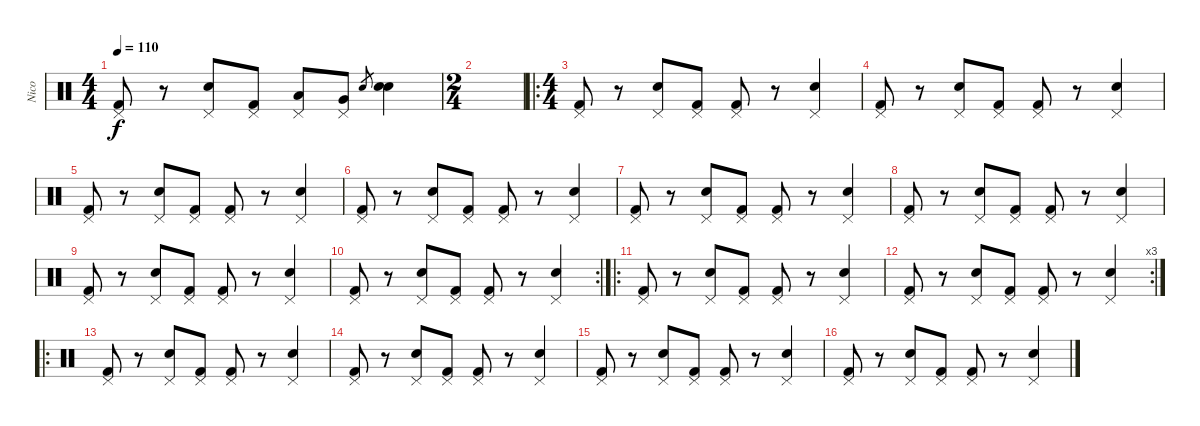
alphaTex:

\track ("Nico" "Nico") {instrument percussion}
\staff {score}
\articulation defaults
\ts (4 4)
\tempo 110
\clef neutral
\ks c
("Pedal Hi-Hat (hit)" "Kick (hit) 2").8{dy f} r.8 ("Pedal Hi-Hat (hit)" "Snare (hit) 2").8 ("Pedal Hi-Hat (hit)" "Kick (hit) 2").8 ("Pedal Hi-Hat (hit)" "Low Floor Tom (hit)").8 ("Pedal Hi-Hat (hit)" "Very Low Tom (hit)").8 "Snare (hit) 2".8{gr} ("Electric Snare (hit)" "Snare (hit) 2").4 |
\ts (2 4)
|
\ro
\ts (4 4)
("Pedal Hi-Hat (hit)" "Kick (hit) 2").8 r.8 ("Pedal Hi-Hat (hit)" "Snare (hit) 2").8 ("Pedal Hi-Hat (hit)" "Kick (hit) 2").8 ("Pedal Hi-Hat (hit)" "Kick (hit) 2").8 r.8 ("Pedal Hi-Hat (hit)" "Snare (hit) 2").4 |
("Pedal Hi-Hat (hit)" "Kick (hit) 2").8 r.8 ("Pedal Hi-Hat (hit)" "Snare (hit) 2").8 ("Pedal Hi-Hat (hit)" "Kick (hit) 2").8 ("Pedal Hi-Hat (hit)" "Kick (hit) 2").8 r.8 ("Pedal Hi-Hat (hit)" "Snare (hit) 2").4 |
("Pedal Hi-Hat (hit)" "Kick (hit) 2").8 r.8 ("Pedal Hi-Hat (hit)" "Snare (hit) 2").8 ("Pedal Hi-Hat (hit)" "Kick (hit) 2").8 ("Pedal Hi-Hat (hit)" "Kick (hit) 2").8 r.8 ("Pedal Hi-Hat (hit)" "Snare (hit) 2").4 |
("Pedal Hi-Hat (hit)" "Kick (hit) 2").8 r.8 ("Pedal Hi-Hat (hit)" "Snare (hit) 2").8 ("Pedal Hi-Hat (hit)" "Kick (hit) 2").8 ("Pedal Hi-Hat (hit)" "Kick (hit) 2").8 r.8 ("Pedal Hi-Hat (hit)" "Snare (hit) 2").4 |
("Pedal Hi-Hat (hit)" "Kick (hit) 2").8 r.8 ("Pedal Hi-Hat (hit)" "Snare (hit) 2").8 ("Pedal Hi-Hat (hit)" "Kick (hit) 2").8 ("Pedal Hi-Hat (hit)" "Kick (hit) 2").8 r.8 ("Pedal Hi-Hat (hit)" "Snare (hit) 2").4 |
("Pedal Hi-Hat (hit)" "Kick (hit) 2").8 r.8 ("Pedal Hi-Hat (hit)" "Snare (hit) 2").8 ("Pedal Hi-Hat (hit)" "Kick (hit) 2").8 ("Pedal Hi-Hat (hit)" "Kick (hit) 2").8 r.8 ("Pedal Hi-Hat (hit)" "Snare (hit) 2").4 |
("Pedal Hi-Hat (hit)" "Kick (hit) 2").8 r.8 ("Pedal Hi-Hat (hit)" "Snare (hit) 2").8 ("Pedal Hi-Hat (hit)" "Kick (hit) 2").8 ("Pedal Hi-Hat (hit)" "Kick (hit) 2").8 r.8 ("Pedal Hi-Hat (hit)" "Snare (hit) 2").4 |
\rc 2
("Pedal Hi-Hat (hit)" "Kick (hit) 2").8 r.8 ("Pedal Hi-Hat (hit)" "Snare (hit) 2").8 ("Pedal Hi-Hat (hit)" "Kick (hit) 2").8 ("Pedal Hi-Hat (hit)" "Kick (hit) 2").8 r.8 ("Pedal Hi-Hat (hit)" "Snare (hit) 2").4 |
\ro
("Pedal Hi-Hat (hit)" "Kick (hit) 2").8 r.8 ("Pedal Hi-Hat (hit)" "Snare (hit) 2").8 ("Pedal Hi-Hat (hit)" "Kick (hit) 2").8 ("Pedal Hi-Hat (hit)" "Kick (hit) 2").8 r.8 ("Pedal Hi-Hat (hit)" "Snare (hit) 2").4 |
\rc 3
("Pedal Hi-Hat (hit)" "Kick (hit) 2").8 r.8 ("Pedal Hi-Hat (hit)" "Snare (hit) 2").8 ("Pedal Hi-Hat (hit)" "Kick (hit) 2").8 ("Pedal Hi-Hat (hit)" "Kick (hit) 2").8 r.8 ("Pedal Hi-Hat (hit)" "Snare (hit) 2").4 |
\ro
("Pedal Hi-Hat (hit)" "Kick (hit) 2").8 r.8 ("Pedal Hi-Hat (hit)" "Snare (hit) 2").8 ("Pedal Hi-Hat (hit)" "Kick (hit) 2").8 ("Pedal Hi-Hat (hit)" "Kick (hit) 2").8 r.8 ("Pedal Hi-Hat (hit)" "Snare (hit) 2").4 |
("Pedal Hi-Hat (hit)" "Kick (hit) 2").8 r.8 ("Pedal Hi-Hat (hit)" "Snare (hit) 2").8 ("Pedal Hi-Hat (hit)" "Kick (hit) 2").8 ("Pedal Hi-Hat (hit)" "Kick (hit) 2").8 r.8 ("Pedal Hi-Hat (hit)" "Snare (hit) 2").4 |
("Pedal Hi-Hat (hit)" "Kick (hit) 2").8 r.8 ("Pedal Hi-Hat (hit)" "Snare (hit) 2").8 ("Pedal Hi-Hat (hit)" "Kick (hit) 2").8 ("Pedal Hi-Hat (hit)" "Kick (hit) 2").8 r.8 ("Pedal Hi-Hat (hit)" "Snare (hit) 2").4 |
("Pedal Hi-Hat (hit)" "Kick (hit) 2").8 r.8 ("Pedal Hi-Hat (hit)" "Snare (hit) 2").8 ("Pedal Hi-Hat (hit)" "Kick (hit) 2").8 ("Pedal Hi-Hat (hit)" "Kick (hit) 2").8 r.8 ("Pedal Hi-Hat (hit)" "Snare (hit) 2").4
